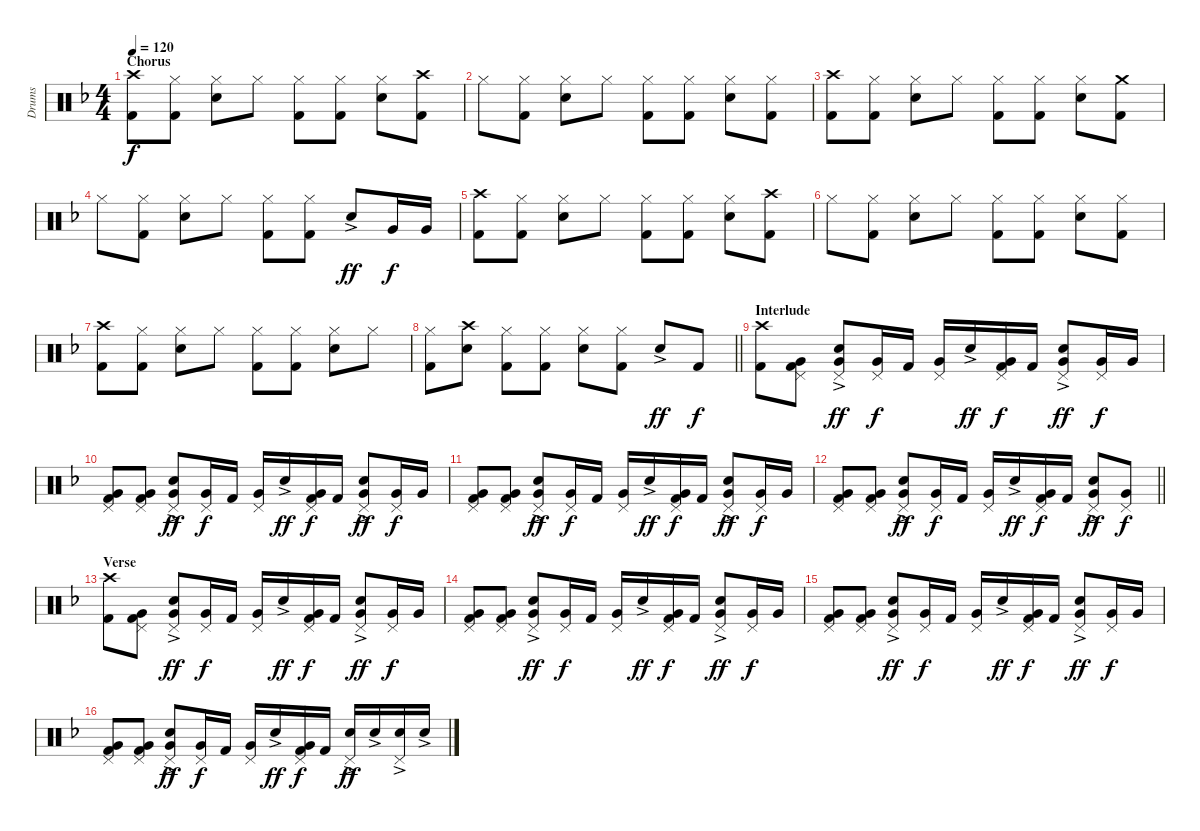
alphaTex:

\track ("Drums" "Drums") {instrument percussion}
\staff {score}
\articulation defaults
\ts (4 4)
\section ("" "Chorus")
\tempo 120
\clef neutral
\ks f
("Crash high (hit)" "Kick (hit) 2").8{dy f} ("Hi-Hat (closed)" "Kick (hit) 2").8 ("Hi-Hat (closed)" "Electric Snare (hit)").8 "Hi-Hat (closed)".8 ("Hi-Hat (closed)" "Kick (hit) 2").8 ("Hi-Hat (closed)" "Kick (hit) 2").8 ("Hi-Hat (closed)" "Electric Snare (hit)").8 ("Crash high (hit)" "Kick (hit) 2").8 |
"Hi-Hat (closed)".8 ("Hi-Hat (closed)" "Kick (hit) 2").8 ("Hi-Hat (closed)" "Electric Snare (hit)").8 "Hi-Hat (closed)".8 ("Hi-Hat (closed)" "Kick (hit) 2").8 ("Hi-Hat (closed)" "Kick (hit) 2").8 ("Hi-Hat (closed)" "Electric Snare (hit)").8 ("Hi-Hat (closed)" "Kick (hit) 2").8 |
("Crash high (hit)" "Kick (hit) 2").8 ("Hi-Hat (closed)" "Kick (hit) 2").8 ("Hi-Hat (closed)" "Electric Snare (hit)").8 "Hi-Hat (closed)".8 ("Hi-Hat (closed)" "Kick (hit) 2").8 ("Hi-Hat (closed)" "Kick (hit) 2").8 ("Hi-Hat (closed)" "Electric Snare (hit)").8 ("Crash medium (hit)" "Kick (hit) 2").8 |
"Hi-Hat (closed)".8 ("Hi-Hat (closed)" "Kick (hit) 2").8 ("Hi-Hat (closed)" "Electric Snare (hit)").8 "Hi-Hat (closed)".8 ("Hi-Hat (closed)" "Kick (hit) 2").8 ("Hi-Hat (closed)" "Kick (hit) 2").8 "Electric Snare (hit)"{ac}.8{dy ff} "Very Low Tom (hit)".16{dy f} "Very Low Tom (hit)".16 |
("Crash high (hit)" "Kick (hit) 2").8 ("Hi-Hat (closed)" "Kick (hit) 2").8 ("Hi-Hat (closed)" "Electric Snare (hit)").8 "Hi-Hat (closed)".8 ("Hi-Hat (closed)" "Kick (hit) 2").8 ("Hi-Hat (closed)" "Kick (hit) 2").8 ("Hi-Hat (closed)" "Electric Snare (hit)").8 ("Crash high (hit)" "Kick (hit) 2").8 |
"Hi-Hat (closed)".8 ("Hi-Hat (closed)" "Kick (hit) 2").8 ("Hi-Hat (closed)" "Electric Snare (hit)").8 "Hi-Hat (closed)".8 ("Hi-Hat (closed)" "Kick (hit) 2").8 ("Hi-Hat (closed)" "Kick (hit) 2").8 ("Hi-Hat (closed)" "Electric Snare (hit)").8 ("Hi-Hat (closed)" "Kick (hit) 2").8 |
("Crash high (hit)" "Kick (hit) 2").8 ("Hi-Hat (closed)" "Kick (hit) 2").8 ("Hi-Hat (closed)" "Electric Snare (hit)").8 "Hi-Hat (closed)".8 ("Hi-Hat (closed)" "Kick (hit) 2").8 ("Hi-Hat (closed)" "Kick (hit) 2").8 ("Hi-Hat (closed)" "Electric Snare (hit)").8 "Hi-Hat (closed)".8 |
\barLineRight lightlight
("Hi-Hat (closed)" "Kick (hit) 2").8 ("Crash high (hit)" "Electric Snare (hit)").8 ("Hi-Hat (closed)" "Kick (hit) 2").8 ("Hi-Hat (closed)" "Kick (hit) 2").8 ("Hi-Hat (closed)" "Electric Snare (hit)").8 ("Hi-Hat (closed)" "Kick (hit) 2").8 "Electric Snare (hit)"{ac}.8{dy ff} "Kick (hit) 2".8{dy f} |
\section ("" "Interlude")
("Crash high (hit)" "Kick (hit) 2").8 ("Pedal Hi-Hat (hit)" "Very Low Tom (hit)" "Kick (hit) 2").8 ("Pedal Hi-Hat (hit)" "Electric Snare (hit)"{ac} "Very Low Tom (hit)").8{dy ff} ("Pedal Hi-Hat (hit)" "Very Low Tom (hit)").16{dy f} "Kick (hit) 2".16 ("Pedal Hi-Hat (hit)" "Very Low Tom (hit)").16 "Electric Snare (hit)"{ac}.16{dy ff} ("Pedal Hi-Hat (hit)" "Very Low Tom (hit)" "Kick (hit) 2").16{dy f} "Kick (hit) 2".16 ("Pedal Hi-Hat (hit)" "Electric Snare (hit)"{ac} "Very Low Tom (hit)").8{dy ff} ("Pedal Hi-Hat (hit)" "Very Low Tom (hit)").16{dy f} "Very Low Tom (hit)".16 |
("Pedal Hi-Hat (hit)" "Very Low Tom (hit)" "Kick (hit) 2").8 ("Pedal Hi-Hat (hit)" "Very Low Tom (hit)" "Kick (hit) 2").8 ("Pedal Hi-Hat (hit)" "Electric Snare (hit)"{ac} "Very Low Tom (hit)").8{dy ff} ("Pedal Hi-Hat (hit)" "Very Low Tom (hit)").16{dy f} "Kick (hit) 2".16 ("Pedal Hi-Hat (hit)" "Very Low Tom (hit)").16 "Electric Snare (hit)"{ac}.16{dy ff} ("Pedal Hi-Hat (hit)" "Very Low Tom (hit)" "Kick (hit) 2").16{dy f} "Kick (hit) 2".16 ("Pedal Hi-Hat (hit)" "Electric Snare (hit)"{ac} "Very Low Tom (hit)").8{dy ff} ("Pedal Hi-Hat (hit)" "Very Low Tom (hit)").16{dy f} "Very Low Tom (hit)".16 |
("Pedal Hi-Hat (hit)" "Very Low Tom (hit)" "Kick (hit) 2").8 ("Pedal Hi-Hat (hit)" "Very Low Tom (hit)" "Kick (hit) 2").8 ("Pedal Hi-Hat (hit)" "Electric Snare (hit)"{ac} "Very Low Tom (hit)").8{dy ff} ("Pedal Hi-Hat (hit)" "Very Low Tom (hit)").16{dy f} "Kick (hit) 2".16 ("Pedal Hi-Hat (hit)" "Very Low Tom (hit)").16 "Electric Snare (hit)"{ac}.16{dy ff} ("Pedal Hi-Hat (hit)" "Very Low Tom (hit)" "Kick (hit) 2").16{dy f} "Kick (hit) 2".16 ("Pedal Hi-Hat (hit)" "Electric Snare (hit)"{ac} "Very Low Tom (hit)").8{dy ff} ("Pedal Hi-Hat (hit)" "Very Low Tom (hit)").16{dy f} "Very Low Tom (hit)".16 |
\barLineRight lightlight
("Pedal Hi-Hat (hit)" "Very Low Tom (hit)" "Kick (hit) 2").8 ("Pedal Hi-Hat (hit)" "Very Low Tom (hit)" "Kick (hit) 2").8 ("Pedal Hi-Hat (hit)" "Electric Snare (hit)"{ac} "Very Low Tom (hit)").8{dy ff} ("Pedal Hi-Hat (hit)" "Very Low Tom (hit)").16{dy f} "Kick (hit) 2".16 ("Pedal Hi-Hat (hit)" "Very Low Tom (hit)").16 "Electric Snare (hit)"{ac}.16{dy ff} ("Pedal Hi-Hat (hit)" "Very Low Tom (hit)" "Kick (hit) 2").16{dy f} "Kick (hit) 2".16 ("Pedal Hi-Hat (hit)" "Electric Snare (hit)"{ac} "Very Low Tom (hit)").8{dy ff} ("Pedal Hi-Hat (hit)" "Very Low Tom (hit)").8{dy f} |
\section ("" "Verse")
("Crash high (hit)" "Kick (hit) 2").8 ("Pedal Hi-Hat (hit)" "Very Low Tom (hit)" "Kick (hit) 2").8 ("Pedal Hi-Hat (hit)" "Electric Snare (hit)"{ac} "Very Low Tom (hit)").8{dy ff} ("Pedal Hi-Hat (hit)" "Very Low Tom (hit)").16{dy f} "Kick (hit) 2".16 ("Pedal Hi-Hat (hit)" "Very Low Tom (hit)").16 "Electric Snare (hit)"{ac}.16{dy ff} ("Pedal Hi-Hat (hit)" "Very Low Tom (hit)" "Kick (hit) 2").16{dy f} "Kick (hit) 2".16 ("Pedal Hi-Hat (hit)" "Electric Snare (hit)"{ac} "Very Low Tom (hit)").8{dy ff} ("Pedal Hi-Hat (hit)" "Very Low Tom (hit)").16{dy f} "Very Low Tom (hit)".16 |
("Pedal Hi-Hat (hit)" "Very Low Tom (hit)" "Kick (hit) 2").8 ("Pedal Hi-Hat (hit)" "Very Low Tom (hit)" "Kick (hit) 2").8 ("Pedal Hi-Hat (hit)" "Electric Snare (hit)"{ac} "Very Low Tom (hit)").8{dy ff} ("Pedal Hi-Hat (hit)" "Very Low Tom (hit)").16{dy f} "Kick (hit) 2".16 ("Pedal Hi-Hat (hit)" "Very Low Tom (hit)").16 "Electric Snare (hit)"{ac}.16{dy ff} ("Pedal Hi-Hat (hit)" "Very Low Tom (hit)" "Kick (hit) 2").16{dy f} "Kick (hit) 2".16 ("Pedal Hi-Hat (hit)" "Electric Snare (hit)"{ac} "Very Low Tom (hit)").8{dy ff} ("Pedal Hi-Hat (hit)" "Very Low Tom (hit)").16{dy f} "Very Low Tom (hit)".16 |
("Pedal Hi-Hat (hit)" "Very Low Tom (hit)" "Kick (hit) 2").8 ("Pedal Hi-Hat (hit)" "Very Low Tom (hit)" "Kick (hit) 2").8 ("Pedal Hi-Hat (hit)" "Electric Snare (hit)"{ac} "Very Low Tom (hit)").8{dy ff} ("Pedal Hi-Hat (hit)" "Very Low Tom (hit)").16{dy f} "Kick (hit) 2".16 ("Pedal Hi-Hat (hit)" "Very Low Tom (hit)").16 "Electric Snare (hit)"{ac}.16{dy ff} ("Pedal Hi-Hat (hit)" "Very Low Tom (hit)" "Kick (hit) 2").16{dy f} "Kick (hit) 2".16 ("Pedal Hi-Hat (hit)" "Electric Snare (hit)"{ac} "Very Low Tom (hit)").8{dy ff} ("Pedal Hi-Hat (hit)" "Very Low Tom (hit)").16{dy f} "Very Low Tom (hit)".16 |
("Pedal Hi-Hat (hit)" "Very Low Tom (hit)" "Kick (hit) 2").8 ("Pedal Hi-Hat (hit)" "Very Low Tom (hit)" "Kick (hit) 2").8 ("Pedal Hi-Hat (hit)" "Electric Snare (hit)"{ac} "Very Low Tom (hit)").8{dy ff} ("Pedal Hi-Hat (hit)" "Very Low Tom (hit)").16{dy f} "Kick (hit) 2".16 ("Pedal Hi-Hat (hit)" "Very Low Tom (hit)").16 "Electric Snare (hit)"{ac}.16{dy ff} ("Pedal Hi-Hat (hit)" "Very Low Tom (hit)" "Kick (hit) 2").16{dy f} "Kick (hit) 2".16 ("Pedal Hi-Hat (hit)" "Electric Snare (hit)"{ac}).16{dy ff} "Electric Snare (hit)"{ac}.16 ("Pedal Hi-Hat (hit)" "Electric Snare (hit)"{ac}).16 "Electric Snare (hit)"{ac}.16
